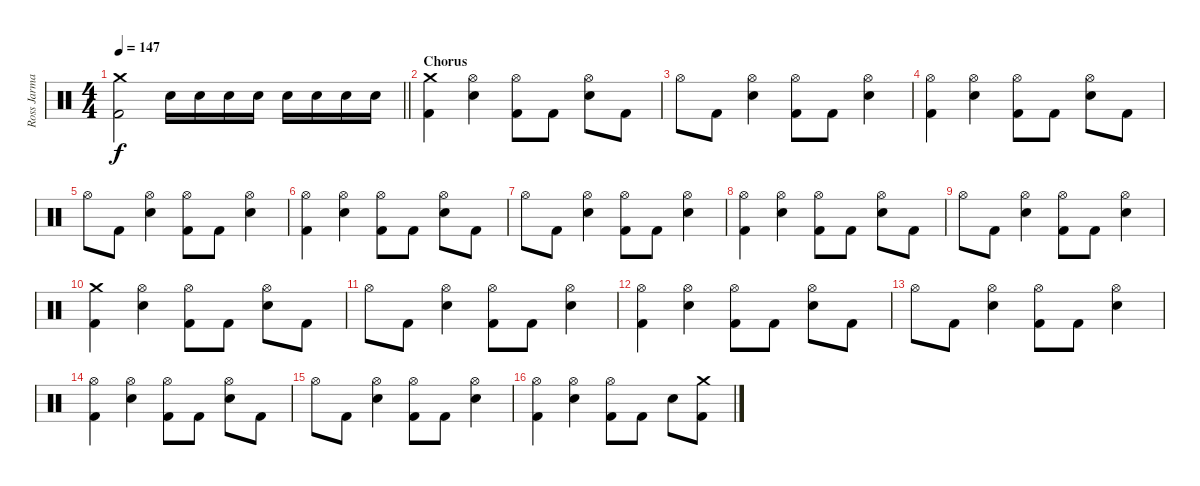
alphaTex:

\track ("Ross Jarman (Drums)" "Ross Jarma") {instrument percussion}
\staff {score}
\articulation defaults
\ts (4 4)
\tempo 147
\clef neutral
\barLineRight lightlight
\ks c
("Crash medium (hit)" "Kick (hit) 2").2{dy f} "Electric Snare (hit)".16 "Electric Snare (hit)".16 "Electric Snare (hit)".16 "Electric Snare (hit)".16 "Electric Snare (hit)".16 "Electric Snare (hit)".16 "Electric Snare (hit)".16 "Electric Snare (hit)".16 |
\section ("" "Chorus")
("Crash medium (hit)" "Kick (hit) 2").4 ("Hi-Hat (open)" "Electric Snare (hit)").4 ("Hi-Hat (open)" "Kick (hit) 2").8 "Kick (hit) 2".8 ("Hi-Hat (open)" "Electric Snare (hit)").8 "Kick (hit) 2".8 |
"Hi-Hat (open)".8 "Kick (hit) 2".8 ("Hi-Hat (open)" "Electric Snare (hit)").4 ("Hi-Hat (open)" "Kick (hit) 2").8 "Kick (hit) 2".8 ("Hi-Hat (open)" "Electric Snare (hit)").4 |
("Hi-Hat (open)" "Kick (hit) 2").4 ("Hi-Hat (open)" "Electric Snare (hit)").4 ("Hi-Hat (open)" "Kick (hit) 2").8 "Kick (hit) 2".8 ("Hi-Hat (open)" "Electric Snare (hit)").8 "Kick (hit) 2".8 |
"Hi-Hat (open)".8 "Kick (hit) 2".8 ("Hi-Hat (open)" "Electric Snare (hit)").4 ("Hi-Hat (open)" "Kick (hit) 2").8 "Kick (hit) 2".8 ("Hi-Hat (open)" "Electric Snare (hit)").4 |
("Hi-Hat (open)" "Kick (hit) 2").4 ("Hi-Hat (open)" "Electric Snare (hit)").4 ("Hi-Hat (open)" "Kick (hit) 2").8 "Kick (hit) 2".8 ("Hi-Hat (open)" "Electric Snare (hit)").8 "Kick (hit) 2".8 |
"Hi-Hat (open)".8 "Kick (hit) 2".8 ("Hi-Hat (open)" "Electric Snare (hit)").4 ("Hi-Hat (open)" "Kick (hit) 2").8 "Kick (hit) 2".8 ("Hi-Hat (open)" "Electric Snare (hit)").4 |
("Hi-Hat (open)" "Kick (hit) 2").4 ("Hi-Hat (open)" "Electric Snare (hit)").4 ("Hi-Hat (open)" "Kick (hit) 2").8 "Kick (hit) 2".8 ("Hi-Hat (open)" "Electric Snare (hit)").8 "Kick (hit) 2".8 |
"Hi-Hat (open)".8 "Kick (hit) 2".8 ("Hi-Hat (open)" "Electric Snare (hit)").4 ("Hi-Hat (open)" "Kick (hit) 2").8 "Kick (hit) 2".8 ("Hi-Hat (open)" "Electric Snare (hit)").4 |
("Crash medium (hit)" "Kick (hit) 2").4 ("Hi-Hat (open)" "Electric Snare (hit)").4 ("Hi-Hat (open)" "Kick (hit) 2").8 "Kick (hit) 2".8 ("Hi-Hat (open)" "Electric Snare (hit)").8 "Kick (hit) 2".8 |
"Hi-Hat (open)".8 "Kick (hit) 2".8 ("Hi-Hat (open)" "Electric Snare (hit)").4 ("Hi-Hat (open)" "Kick (hit) 2").8 "Kick (hit) 2".8 ("Hi-Hat (open)" "Electric Snare (hit)").4 |
("Hi-Hat (open)" "Kick (hit) 2").4 ("Hi-Hat (open)" "Electric Snare (hit)").4 ("Hi-Hat (open)" "Kick (hit) 2").8 "Kick (hit) 2".8 ("Hi-Hat (open)" "Electric Snare (hit)").8 "Kick (hit) 2".8 |
"Hi-Hat (open)".8 "Kick (hit) 2".8 ("Hi-Hat (open)" "Electric Snare (hit)").4 ("Hi-Hat (open)" "Kick (hit) 2").8 "Kick (hit) 2".8 ("Hi-Hat (open)" "Electric Snare (hit)").4 |
("Hi-Hat (open)" "Kick (hit) 2").4 ("Hi-Hat (open)" "Electric Snare (hit)").4 ("Hi-Hat (open)" "Kick (hit) 2").8 "Kick (hit) 2".8 ("Hi-Hat (open)" "Electric Snare (hit)").8 "Kick (hit) 2".8 |
"Hi-Hat (open)".8 "Kick (hit) 2".8 ("Hi-Hat (open)" "Electric Snare (hit)").4 ("Hi-Hat (open)" "Kick (hit) 2").8 "Kick (hit) 2".8 ("Hi-Hat (open)" "Electric Snare (hit)").4 |
("Hi-Hat (open)" "Kick (hit) 2").4 ("Hi-Hat (open)" "Electric Snare (hit)").4 ("Hi-Hat (open)" "Kick (hit) 2").8 "Kick (hit) 2".8 "Electric Snare (hit)".8 ("Crash medium (hit)" "Kick (hit) 2").8
